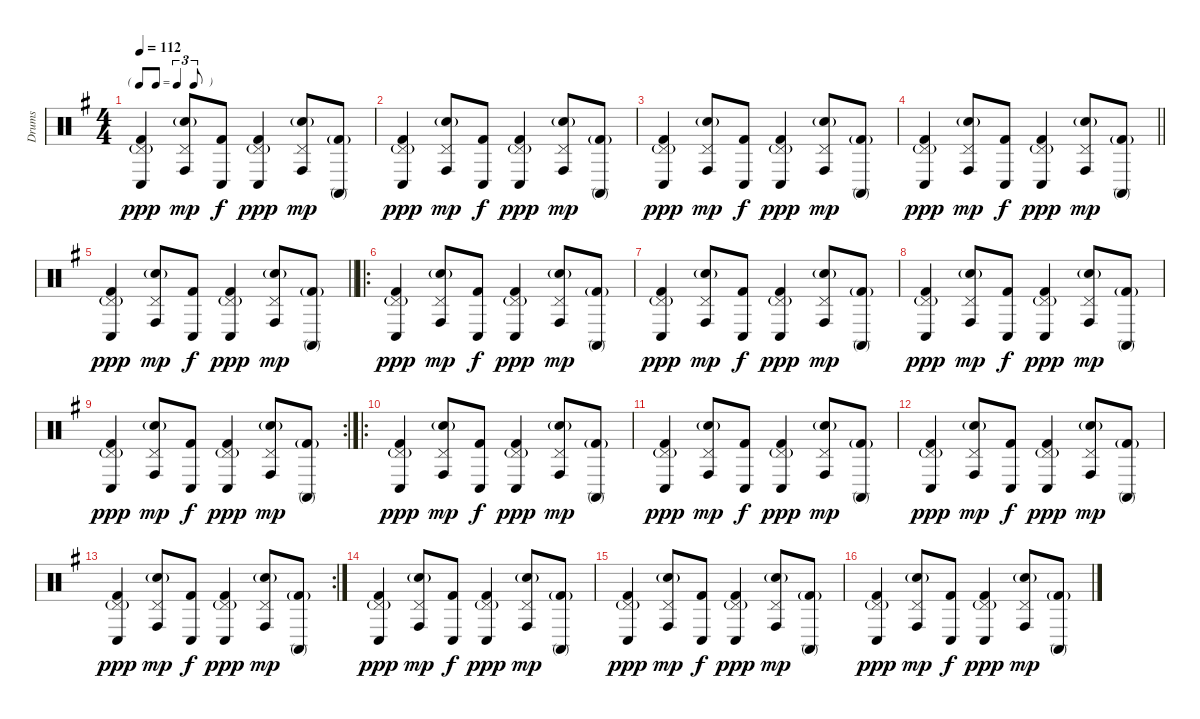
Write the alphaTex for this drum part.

\track ("Drums" "Drums") {instrument percussion}
\staff {score}
\articulation defaults
\ts (4 4)
\tf triplet8th
\tempo 112
\clef neutral
\ks g
("Pedal Hi-Hat (hit)"{g} "Conga low (hit)" "Kick (hit) 2").4{dy ppp} ("Pedal Hi-Hat (hit)" "Hand Clap (hit)"{g} "Conga high (hit)").8{dy mp} ("Conga low (hit)" "Kick (hit) 2").8{dy f} ("Pedal Hi-Hat (hit)"{g} "Conga low (hit)" "Kick (hit) 2").4{dy ppp} ("Pedal Hi-Hat (hit)" "Hand Clap (hit)"{g} "Conga high (hit)").8{dy mp} ("Conga high (mute)" "Kick (hit) 2"{g}).8 |
("Pedal Hi-Hat (hit)"{g} "Conga low (hit)" "Kick (hit) 2").4{dy ppp} ("Pedal Hi-Hat (hit)" "Hand Clap (hit)"{g} "Conga high (hit)").8{dy mp} ("Conga low (hit)" "Kick (hit) 2").8{dy f} ("Pedal Hi-Hat (hit)"{g} "Conga low (hit)" "Kick (hit) 2").4{dy ppp} ("Pedal Hi-Hat (hit)" "Hand Clap (hit)"{g} "Conga high (hit)").8{dy mp} ("Conga high (mute)" "Kick (hit) 2"{g}).8 |
("Pedal Hi-Hat (hit)"{g} "Conga low (hit)" "Kick (hit) 2").4{dy ppp} ("Pedal Hi-Hat (hit)" "Hand Clap (hit)"{g} "Conga high (hit)").8{dy mp} ("Conga low (hit)" "Kick (hit) 2").8{dy f} ("Pedal Hi-Hat (hit)"{g} "Conga low (hit)" "Kick (hit) 2").4{dy ppp} ("Pedal Hi-Hat (hit)" "Hand Clap (hit)"{g} "Conga high (hit)").8{dy mp} ("Conga high (mute)" "Kick (hit) 2"{g}).8 |
\barLineRight lightlight
("Pedal Hi-Hat (hit)"{g} "Conga low (hit)" "Kick (hit) 2").4{dy ppp} ("Pedal Hi-Hat (hit)" "Hand Clap (hit)"{g} "Conga high (hit)").8{dy mp} ("Conga low (hit)" "Kick (hit) 2").8{dy f} ("Pedal Hi-Hat (hit)"{g} "Conga low (hit)" "Kick (hit) 2").4{dy ppp} ("Pedal Hi-Hat (hit)" "Hand Clap (hit)"{g} "Conga high (hit)").8{dy mp} ("Conga high (mute)" "Kick (hit) 2"{g}).8 |
\barLineRight lightlight
("Pedal Hi-Hat (hit)"{g} "Conga low (hit)" "Kick (hit) 2").4{dy ppp} ("Pedal Hi-Hat (hit)" "Hand Clap (hit)"{g} "Conga high (hit)").8{dy mp} ("Conga low (hit)" "Kick (hit) 2").8{dy f} ("Pedal Hi-Hat (hit)"{g} "Conga low (hit)" "Kick (hit) 2").4{dy ppp} ("Pedal Hi-Hat (hit)" "Hand Clap (hit)"{g} "Conga high (hit)").8{dy mp} ("Conga high (mute)" "Kick (hit) 2"{g}).8 |
\ro
("Pedal Hi-Hat (hit)"{g} "Conga low (hit)" "Kick (hit) 2").4{dy ppp} ("Pedal Hi-Hat (hit)" "Hand Clap (hit)"{g} "Conga high (hit)").8{dy mp} ("Conga low (hit)" "Kick (hit) 2").8{dy f} ("Pedal Hi-Hat (hit)"{g} "Conga low (hit)" "Kick (hit) 2").4{dy ppp} ("Pedal Hi-Hat (hit)" "Hand Clap (hit)"{g} "Conga high (hit)").8{dy mp} ("Conga high (mute)" "Kick (hit) 2"{g}).8 |
("Pedal Hi-Hat (hit)"{g} "Conga low (hit)" "Kick (hit) 2").4{dy ppp} ("Pedal Hi-Hat (hit)" "Hand Clap (hit)"{g} "Conga high (hit)").8{dy mp} ("Conga low (hit)" "Kick (hit) 2").8{dy f} ("Pedal Hi-Hat (hit)"{g} "Conga low (hit)" "Kick (hit) 2").4{dy ppp} ("Pedal Hi-Hat (hit)" "Hand Clap (hit)"{g} "Conga high (hit)").8{dy mp} ("Conga high (mute)" "Kick (hit) 2"{g}).8 |
("Pedal Hi-Hat (hit)"{g} "Conga low (hit)" "Kick (hit) 2").4{dy ppp} ("Pedal Hi-Hat (hit)" "Hand Clap (hit)"{g} "Conga high (hit)").8{dy mp} ("Conga low (hit)" "Kick (hit) 2").8{dy f} ("Pedal Hi-Hat (hit)"{g} "Conga low (hit)" "Kick (hit) 2").4{dy ppp} ("Pedal Hi-Hat (hit)" "Hand Clap (hit)"{g} "Conga high (hit)").8{dy mp} ("Conga high (mute)" "Kick (hit) 2"{g}).8 |
\rc 2
("Pedal Hi-Hat (hit)"{g} "Conga low (hit)" "Kick (hit) 2").4{dy ppp} ("Pedal Hi-Hat (hit)" "Hand Clap (hit)"{g} "Conga high (hit)").8{dy mp} ("Conga low (hit)" "Kick (hit) 2").8{dy f} ("Pedal Hi-Hat (hit)"{g} "Conga low (hit)" "Kick (hit) 2").4{dy ppp} ("Pedal Hi-Hat (hit)" "Hand Clap (hit)"{g} "Conga high (hit)").8{dy mp} ("Conga high (mute)" "Kick (hit) 2"{g}).8 |
\ro
("Pedal Hi-Hat (hit)"{g} "Conga low (hit)" "Kick (hit) 2").4{dy ppp} ("Pedal Hi-Hat (hit)" "Hand Clap (hit)"{g} "Conga high (hit)").8{dy mp} ("Conga low (hit)" "Kick (hit) 2").8{dy f} ("Pedal Hi-Hat (hit)"{g} "Conga low (hit)" "Kick (hit) 2").4{dy ppp} ("Pedal Hi-Hat (hit)" "Hand Clap (hit)"{g} "Conga high (hit)").8{dy mp} ("Conga high (mute)" "Kick (hit) 2"{g}).8 |
("Pedal Hi-Hat (hit)"{g} "Conga low (hit)" "Kick (hit) 2").4{dy ppp} ("Pedal Hi-Hat (hit)" "Hand Clap (hit)"{g} "Conga high (hit)").8{dy mp} ("Conga low (hit)" "Kick (hit) 2").8{dy f} ("Pedal Hi-Hat (hit)"{g} "Conga low (hit)" "Kick (hit) 2").4{dy ppp} ("Pedal Hi-Hat (hit)" "Hand Clap (hit)"{g} "Conga high (hit)").8{dy mp} ("Conga high (mute)" "Kick (hit) 2"{g}).8 |
("Pedal Hi-Hat (hit)"{g} "Conga low (hit)" "Kick (hit) 2").4{dy ppp} ("Pedal Hi-Hat (hit)" "Hand Clap (hit)"{g} "Conga high (hit)").8{dy mp} ("Conga low (hit)" "Kick (hit) 2").8{dy f} ("Pedal Hi-Hat (hit)"{g} "Conga low (hit)" "Kick (hit) 2").4{dy ppp} ("Pedal Hi-Hat (hit)" "Hand Clap (hit)"{g} "Conga high (hit)").8{dy mp} ("Conga high (mute)" "Kick (hit) 2"{g}).8 |
\rc 2
("Pedal Hi-Hat (hit)"{g} "Conga low (hit)" "Kick (hit) 2").4{dy ppp} ("Pedal Hi-Hat (hit)" "Hand Clap (hit)"{g} "Conga high (hit)").8{dy mp} ("Conga low (hit)" "Kick (hit) 2").8{dy f} ("Pedal Hi-Hat (hit)"{g} "Conga low (hit)" "Kick (hit) 2").4{dy ppp} ("Pedal Hi-Hat (hit)" "Hand Clap (hit)"{g} "Conga high (hit)").8{dy mp} ("Conga high (mute)" "Kick (hit) 2"{g}).8 |
("Pedal Hi-Hat (hit)"{g} "Conga low (hit)" "Kick (hit) 2").4{dy ppp} ("Pedal Hi-Hat (hit)" "Hand Clap (hit)"{g} "Conga high (hit)").8{dy mp} ("Conga low (hit)" "Kick (hit) 2").8{dy f} ("Pedal Hi-Hat (hit)"{g} "Conga low (hit)" "Kick (hit) 2").4{dy ppp} ("Pedal Hi-Hat (hit)" "Hand Clap (hit)"{g} "Conga high (hit)").8{dy mp} ("Conga high (mute)" "Kick (hit) 2"{g}).8 |
("Pedal Hi-Hat (hit)"{g} "Conga low (hit)" "Kick (hit) 2").4{dy ppp} ("Pedal Hi-Hat (hit)" "Hand Clap (hit)"{g} "Conga high (hit)").8{dy mp} ("Conga low (hit)" "Kick (hit) 2").8{dy f} ("Pedal Hi-Hat (hit)"{g} "Conga low (hit)" "Kick (hit) 2").4{dy ppp} ("Pedal Hi-Hat (hit)" "Hand Clap (hit)"{g} "Conga high (hit)").8{dy mp} ("Conga high (mute)" "Kick (hit) 2"{g}).8 |
("Pedal Hi-Hat (hit)"{g} "Conga low (hit)" "Kick (hit) 2").4{dy ppp} ("Pedal Hi-Hat (hit)" "Hand Clap (hit)"{g} "Conga high (hit)").8{dy mp} ("Conga low (hit)" "Kick (hit) 2").8{dy f} ("Pedal Hi-Hat (hit)"{g} "Conga low (hit)" "Kick (hit) 2").4{dy ppp} ("Pedal Hi-Hat (hit)" "Hand Clap (hit)"{g} "Conga high (hit)").8{dy mp} ("Conga high (mute)" "Kick (hit) 2"{g}).8
